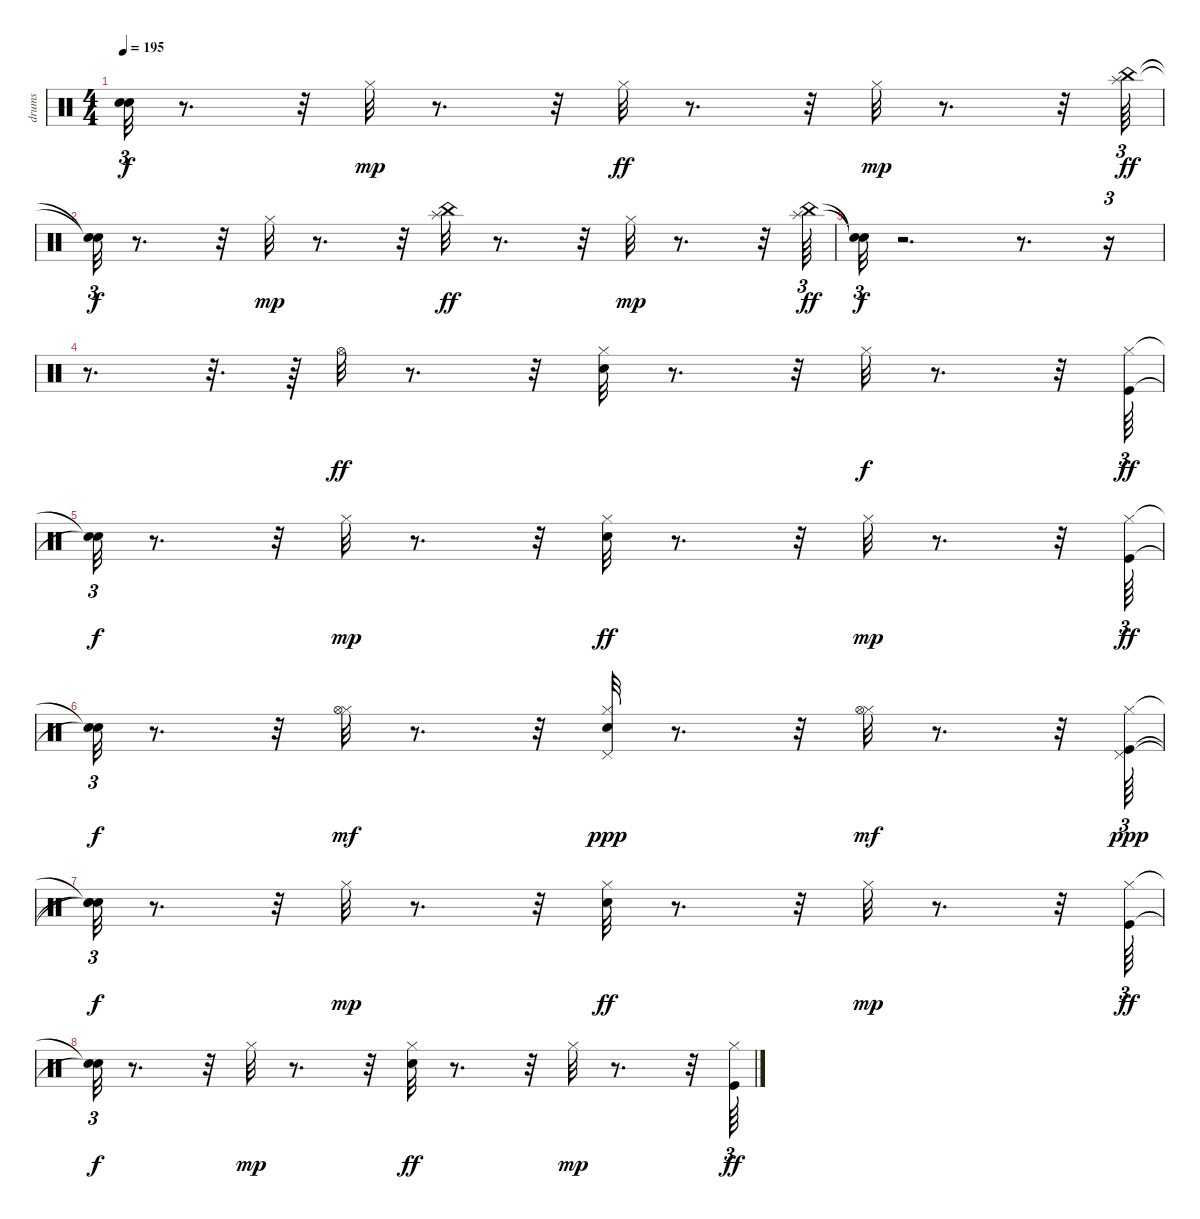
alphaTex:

\track ("drums" "drums") {instrument percussion}
\staff {score}
\articulation defaults
\ts (4 4)
\tempo 195
\clef neutral
\ks c
("Snare (hit)"{t} "Snare (hit)"{t}).32{tu (3 2) dy f} r.8{d} r.32 "Hi-Hat (closed)".32{dy mp} r.8{d} r.32 "Hi-Hat (closed)".32{dy ff} r.8{d} r.32 "Hi-Hat (closed)".32{dy mp} r.8{d} r.32 ("Splash (hit)" "China (hit)").64{tu (3 2) dy ff} |
("Snare (hit)"{t} "Snare (hit)"{t}).32{tu (3 2) dy f} r.8{d} r.32 "Hi-Hat (closed)".32{dy mp} r.8{d} r.32 ("Splash (hit)" "China (hit)").32{dy ff} r.8{d} r.32 "Hi-Hat (closed)".32{dy mp} r.8{d} r.32 ("Splash (hit)" "China (hit)").64{tu (3 2) dy ff} |
("Snare (hit)"{t} "Snare (hit)"{t}).32{tu (3 2) dy f} r.2{d} r.8{d} r.16{tu (3 2)} |
r.8{d} r.32{d} r.64 "Hi-Hat (open)".32{dy ff} r.8{d} r.32 ("Snare (hit) 2" "Hi-Hat (closed)").32 r.8{d} r.32 "Hi-Hat (closed)".32{dy f} r.8{d} r.32 ("Hi-Hat (closed)" "Kick (hit)").64{tu (3 2) dy ff} |
("Snare (hit)"{t} "Snare (hit)"{t}).32{tu (3 2) dy f} r.8{d} r.32 "Hi-Hat (closed)".32{dy mp} r.8{d} r.32 ("Snare (hit) 2" "Hi-Hat (closed)").32{dy ff} r.8{d} r.32 "Hi-Hat (closed)".32{dy mp} r.8{d} r.32 ("Kick (hit)" "Hi-Hat (closed)").64{tu (3 2) dy ff} |
("Snare (hit)"{t} "Snare (hit)"{t}).32{tu (3 2) dy f} r.8{d} r.32 ("Hi-Hat (closed)" "Hi-Hat (open)").32{dy mf} r.8{d} r.32 ("Snare (hit) 2" "Hi-Hat (closed)" "Pedal Hi-Hat (hit)").32{dy ppp} r.8{d} r.32 ("Hi-Hat (closed)" "Hi-Hat (open)").32{dy mf} r.8{d} r.32 ("Hi-Hat (closed)" "Kick (hit)" "Pedal Hi-Hat (hit)").64{tu (3 2) dy ppp} |
("Snare (hit)"{t} "Snare (hit)"{t} "Snare (hit)"{t}).32{tu (3 2) dy f} r.8{d} r.32 "Hi-Hat (closed)".32{dy mp} r.8{d} r.32 ("Hi-Hat (closed)" "Snare (hit) 2").32{dy ff} r.8{d} r.32 "Hi-Hat (closed)".32{dy mp} r.8{d} r.32 ("Hi-Hat (closed)" "Kick (hit)").64{tu (3 2) dy ff} |
("Snare (hit)"{t} "Snare (hit)"{t}).32{tu (3 2) dy f} r.8{d} r.32 "Hi-Hat (closed)".32{dy mp} r.8{d} r.32 ("Snare (hit) 2" "Hi-Hat (closed)").32{dy ff} r.8{d} r.32 "Hi-Hat (closed)".32{dy mp} r.8{d} r.32 ("Kick (hit)" "Hi-Hat (closed)").64{tu (3 2) dy ff}
